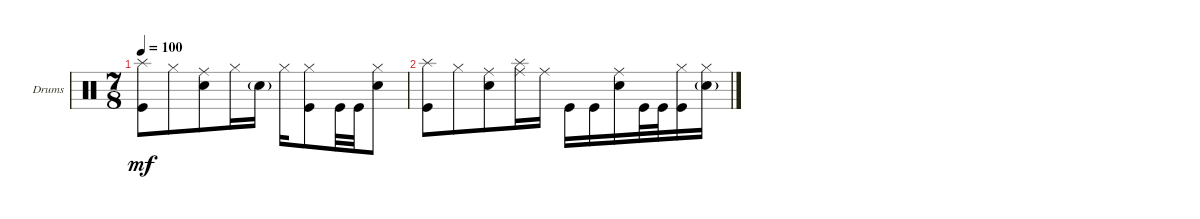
\defaultSystemsLayout 4
\bracketExtendMode groupsimilarinstruments
\firstSystemTrackNameOrientation horizontal
\otherSystemsTrackNameOrientation horizontal
\track ("Drumkit" "Drums") {instrument percussion}
\staff {score}
\articulation defaults
\ts (7 8)
\tempo 100
\clef neutral
\ks c
("Kick (hit)" "Splash (hit)").8{dy mf} "Hi-Hat (closed)".8 ("Snare (hit) 2" "Ride (middle)").8 "Hi-Hat (closed)".16 "Snare (hit) 2"{g}.16 "Hi-Hat (closed)".16 ("Kick (hit)" "Hi-Hat (closed)").8 "Kick (hit)".32 "Kick (hit)".32 ("Snare (hit) 2" "Hi-Hat (closed)").8 |
("Kick (hit)" "Splash (hit)").8 "Hi-Hat (closed)".8 ("Snare (hit) 2" "Ride (middle)").8 ("Splash (hit)" "Ride (middle)").16 "Ride (middle)".16 "Kick (hit)".16 "Kick (hit)".16 ("Snare (hit) 2" "Ride (middle)").16 "Kick (hit)".32 "Kick (hit)".32 ("Kick (hit)" "Hi-Hat (closed)").16 ("Hi-Hat (closed)" "Snare (hit) 2"{g}).16
